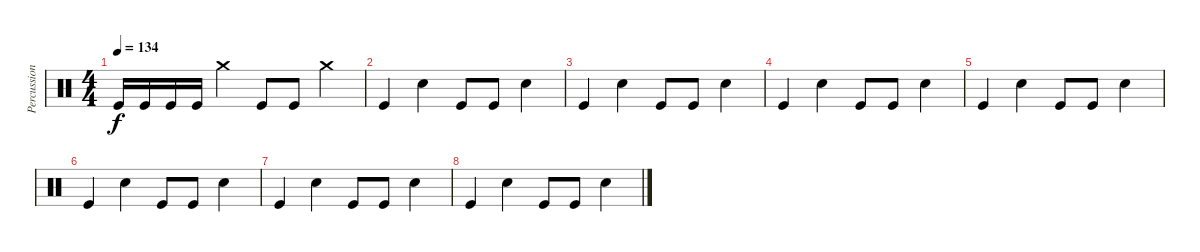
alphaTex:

\track ("Percussion" "Percussion") {instrument percussion}
\staff {score}
\articulation defaults
\ts (4 4)
\tempo 134
\clef neutral
\ks c "Kick (hit)".16{dy f} "Kick (hit)".16 "Kick (hit)".16 "Kick (hit)".16 "Crash medium (hit)".4 "Kick (hit)".8 "Kick (hit)".8 "Crash medium (hit)".4
|
"Kick (hit)".4 "Snare (hit) 2".4 "Kick (hit)".8 "Kick (hit)".8 "Snare (hit) 2".4 |
"Kick (hit)".4 "Snare (hit) 2".4 "Kick (hit)".8 "Kick (hit)".8 "Snare (hit) 2".4 |
"Kick (hit)".4 "Snare (hit) 2".4 "Kick (hit)".8 "Kick (hit)".8 "Snare (hit) 2".4 |
"Kick (hit)".4 "Snare (hit) 2".4 "Kick (hit)".8 "Kick (hit)".8 "Snare (hit) 2".4 |
"Kick (hit)".4 "Snare (hit) 2".4 "Kick (hit)".8 "Kick (hit)".8 "Snare (hit) 2".4 |
"Kick (hit)".4 "Snare (hit) 2".4 "Kick (hit)".8 "Kick (hit)".8 "Snare (hit) 2".4 |
"Kick (hit)".4 "Snare (hit) 2".4 "Kick (hit)".8 "Kick (hit)".8 "Snare (hit) 2".4
